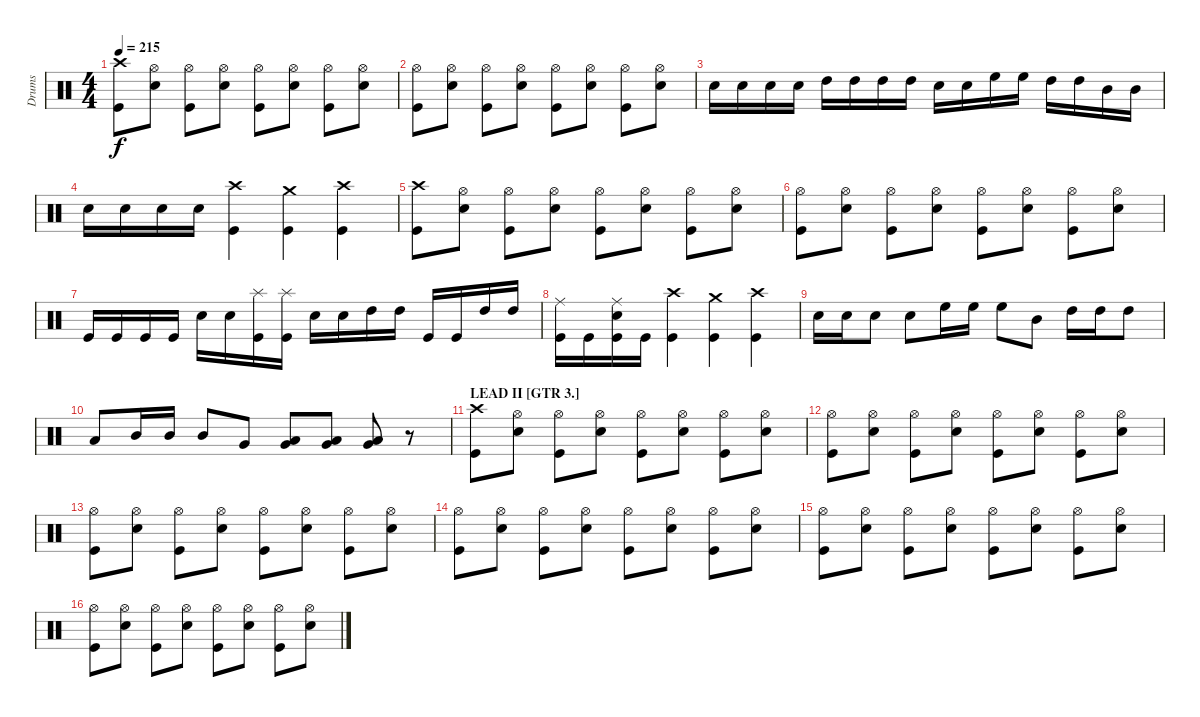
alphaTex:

\track ("Drums" "Drums") {instrument percussion}
\staff {score}
\articulation defaults
\ts (4 4)
\tempo 215
\clef neutral
\ks c
("Crash high (hit)" "Kick (hit)").8{dy f} ("Hi-Hat (open)" "Electric Snare (hit)").8 ("Hi-Hat (open)" "Kick (hit)").8 ("Hi-Hat (open)" "Electric Snare (hit)").8 ("Hi-Hat (open)" "Kick (hit)").8 ("Hi-Hat (open)" "Electric Snare (hit)").8 ("Hi-Hat (open)" "Kick (hit)").8 ("Hi-Hat (open)" "Electric Snare (hit)").8 |
("Hi-Hat (open)" "Kick (hit)").8 ("Hi-Hat (open)" "Electric Snare (hit)").8 ("Hi-Hat (open)" "Kick (hit)").8 ("Hi-Hat (open)" "Electric Snare (hit)").8 ("Hi-Hat (open)" "Kick (hit)").8 ("Hi-Hat (open)" "Electric Snare (hit)").8 ("Hi-Hat (open)" "Kick (hit)").8 ("Hi-Hat (open)" "Electric Snare (hit)").8 |
"Electric Snare (hit)".16 "Electric Snare (hit)".16 "Electric Snare (hit)".16 "Electric Snare (hit)".16 "High Tom (hit)".16 "High Tom (hit)".16 "High Tom (hit)".16 "High Tom (hit)".16 "Electric Snare (hit)".16 "Electric Snare (hit)".16 "High Floor Tom (hit)".16 "High Floor Tom (hit)".16 "High Tom (hit)".16 "High Tom (hit)".16 "Mid Tom (hit)".16 "Mid Tom (hit)".16 |
"Electric Snare (hit)".16 "Electric Snare (hit)".16 "Electric Snare (hit)".16 "Electric Snare (hit)".16 ("Crash high (hit)" "Kick (hit)").4 ("Crash medium (hit)" "Kick (hit)").4 ("Crash high (hit)" "Kick (hit)").4 |
("Crash high (hit)" "Kick (hit)").8 ("Hi-Hat (open)" "Electric Snare (hit)").8 ("Hi-Hat (open)" "Kick (hit)").8 ("Hi-Hat (open)" "Electric Snare (hit)").8 ("Hi-Hat (open)" "Kick (hit)").8 ("Hi-Hat (open)" "Electric Snare (hit)").8 ("Hi-Hat (open)" "Kick (hit)").8 ("Hi-Hat (open)" "Electric Snare (hit)").8 |
("Hi-Hat (open)" "Kick (hit)").8 ("Hi-Hat (open)" "Electric Snare (hit)").8 ("Hi-Hat (open)" "Kick (hit)").8 ("Hi-Hat (open)" "Electric Snare (hit)").8 ("Hi-Hat (open)" "Kick (hit)").8 ("Hi-Hat (open)" "Electric Snare (hit)").8 ("Hi-Hat (open)" "Kick (hit)").8 ("Hi-Hat (open)" "Electric Snare (hit)").8 |
"Kick (hit)".16 "Kick (hit)".16 "Kick (hit)".16 "Kick (hit)".16 "Electric Snare (hit)".16 "Electric Snare (hit)".16 ("Splash (hit)" "Kick (hit)").16 ("Splash (hit)" "Kick (hit)").16 "Electric Snare (hit)".16 "Electric Snare (hit)".16 "High Tom (hit)".16 "High Tom (hit)".16 "Kick (hit)".16 "Kick (hit)".16 "High Tom (hit)".16 "High Tom (hit)".16 |
("Ride (middle)" "Kick (hit)").16 "Kick (hit)".16 ("Ride (middle)" "Electric Snare (hit)" "Kick (hit)").16 "Kick (hit)".16 ("Crash high (hit)" "Kick (hit)").4 ("Crash medium (hit)" "Kick (hit)").4 ("Crash high (hit)" "Kick (hit)").4 |
"Electric Snare (hit)".16 "Electric Snare (hit)".16 "Electric Snare (hit)".8 "Electric Snare (hit)".8 "High Floor Tom (hit)".16 "High Floor Tom (hit)".16 "High Floor Tom (hit)".8 "Mid Tom (hit)".8 "High Tom (hit)".16 "High Tom (hit)".16 "High Tom (hit)".8 |
"Low Tom (hit)".8 "Mid Tom (hit)".16 "Mid Tom (hit)".16 "Mid Tom (hit)".8 "Very Low Tom (hit)".8 ("Very Low Tom (hit)" "Low Floor Tom (hit)").8 ("Very Low Tom (hit)" "Low Floor Tom (hit)").8 ("Very Low Tom (hit)" "Low Floor Tom (hit)").8 r.8 |
\section ("" "LEAD II [GTR 3.]")
("Crash high (hit)" "Kick (hit)").8 ("Hi-Hat (open)" "Electric Snare (hit)").8 ("Hi-Hat (open)" "Kick (hit)").8 ("Hi-Hat (open)" "Electric Snare (hit)").8 ("Hi-Hat (open)" "Kick (hit)").8 ("Hi-Hat (open)" "Electric Snare (hit)").8 ("Hi-Hat (open)" "Kick (hit)").8 ("Hi-Hat (open)" "Electric Snare (hit)").8 |
("Hi-Hat (open)" "Kick (hit)").8 ("Hi-Hat (open)" "Electric Snare (hit)").8 ("Hi-Hat (open)" "Kick (hit)").8 ("Hi-Hat (open)" "Electric Snare (hit)").8 ("Hi-Hat (open)" "Kick (hit)").8 ("Hi-Hat (open)" "Electric Snare (hit)").8 ("Hi-Hat (open)" "Kick (hit)").8 ("Hi-Hat (open)" "Electric Snare (hit)").8 |
("Hi-Hat (open)" "Kick (hit)").8 ("Hi-Hat (open)" "Electric Snare (hit)").8 ("Hi-Hat (open)" "Kick (hit)").8 ("Hi-Hat (open)" "Electric Snare (hit)").8 ("Hi-Hat (open)" "Kick (hit)").8 ("Hi-Hat (open)" "Electric Snare (hit)").8 ("Hi-Hat (open)" "Kick (hit)").8 ("Hi-Hat (open)" "Electric Snare (hit)").8 |
("Hi-Hat (open)" "Kick (hit)").8 ("Hi-Hat (open)" "Electric Snare (hit)").8 ("Hi-Hat (open)" "Kick (hit)").8 ("Hi-Hat (open)" "Electric Snare (hit)").8 ("Hi-Hat (open)" "Kick (hit)").8 ("Hi-Hat (open)" "Electric Snare (hit)").8 ("Hi-Hat (open)" "Kick (hit)").8 ("Hi-Hat (open)" "Electric Snare (hit)").8 |
("Hi-Hat (open)" "Kick (hit)").8 ("Hi-Hat (open)" "Electric Snare (hit)").8 ("Hi-Hat (open)" "Kick (hit)").8 ("Hi-Hat (open)" "Electric Snare (hit)").8 ("Hi-Hat (open)" "Kick (hit)").8 ("Hi-Hat (open)" "Electric Snare (hit)").8 ("Hi-Hat (open)" "Kick (hit)").8 ("Hi-Hat (open)" "Electric Snare (hit)").8 |
("Hi-Hat (open)" "Kick (hit)").8 ("Hi-Hat (open)" "Electric Snare (hit)").8 ("Hi-Hat (open)" "Kick (hit)").8 ("Hi-Hat (open)" "Electric Snare (hit)").8 ("Hi-Hat (open)" "Kick (hit)").8 ("Hi-Hat (open)" "Electric Snare (hit)").8 ("Hi-Hat (open)" "Kick (hit)").8 ("Hi-Hat (open)" "Electric Snare (hit)").8
